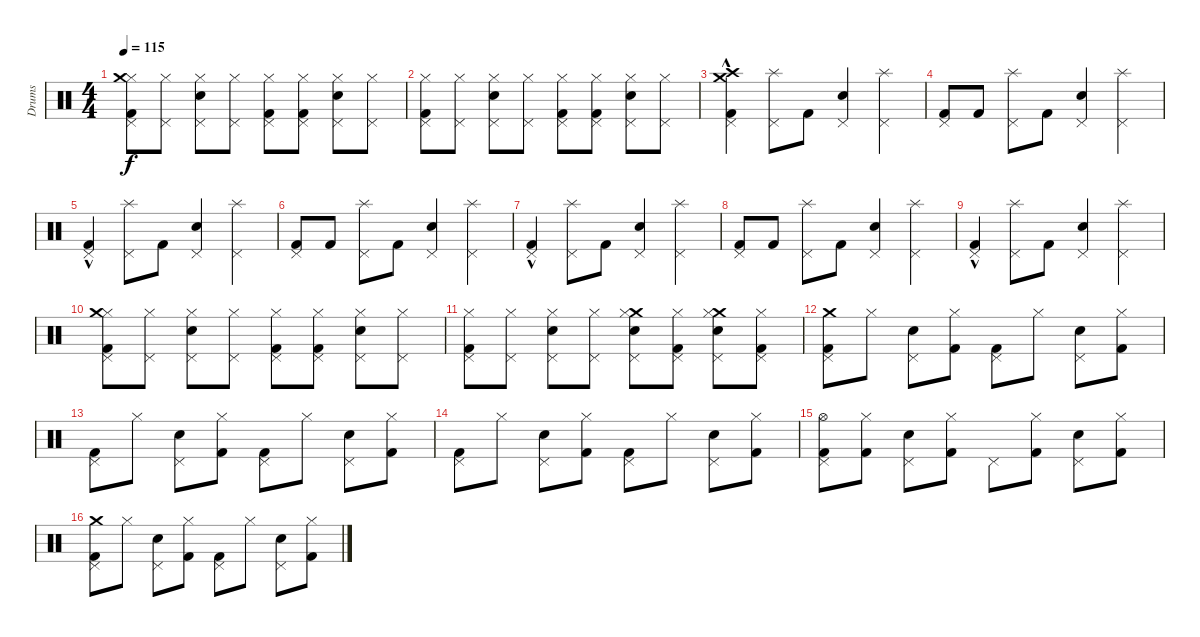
\track ("Drums" "Drums") {instrument percussion}
\staff {score}
\articulation defaults
\ts (4 4)
\tempo 115
\clef neutral
\ks c
("Hi-Hat (closed)" "Pedal Hi-Hat (hit)" "Crash medium (hit)" "Kick (hit) 2").8{dy f} ("Hi-Hat (closed)" "Pedal Hi-Hat (hit)").8 ("Hi-Hat (closed)" "Pedal Hi-Hat (hit)" "Snare (hit) 2").8 ("Hi-Hat (closed)" "Pedal Hi-Hat (hit)").8 ("Hi-Hat (closed)" "Pedal Hi-Hat (hit)" "Kick (hit) 2").8 ("Kick (hit) 2" "Hi-Hat (closed)" "Pedal Hi-Hat (hit)").8 ("Hi-Hat (closed)" "Pedal Hi-Hat (hit)" "Snare (hit) 2").8 ("Hi-Hat (closed)" "Pedal Hi-Hat (hit)").8 |
("Hi-Hat (closed)" "Pedal Hi-Hat (hit)" "Kick (hit) 2").8 ("Hi-Hat (closed)" "Pedal Hi-Hat (hit)").8 ("Hi-Hat (closed)" "Pedal Hi-Hat (hit)" "Snare (hit) 2").8 ("Hi-Hat (closed)" "Pedal Hi-Hat (hit)").8 ("Hi-Hat (closed)" "Pedal Hi-Hat (hit)" "Kick (hit) 2").8 ("Kick (hit) 2" "Pedal Hi-Hat (hit)" "Hi-Hat (closed)").8 ("Hi-Hat (closed)" "Pedal Hi-Hat (hit)" "Snare (hit) 2").8 ("Hi-Hat (closed)" "Pedal Hi-Hat (hit)").8 |
("Pedal Hi-Hat (hit)" "Kick (hit) 2"{hac} "Crash high (hit)" "Crash medium (hit)").4 ("Splash (hit)" "Pedal Hi-Hat (hit)").8 "Kick (hit) 2".8 ("Pedal Hi-Hat (hit)" "Snare (hit) 2").4 ("Pedal Hi-Hat (hit)" "Splash (hit)").4 |
("Pedal Hi-Hat (hit)" "Kick (hit) 2").8 "Kick (hit) 2".8 ("Splash (hit)" "Pedal Hi-Hat (hit)").8 "Kick (hit) 2".8 ("Pedal Hi-Hat (hit)" "Snare (hit) 2").4 ("Splash (hit)" "Pedal Hi-Hat (hit)").4 |
("Pedal Hi-Hat (hit)" "Kick (hit) 2"{hac}).4 ("Splash (hit)" "Pedal Hi-Hat (hit)").8 "Kick (hit) 2".8 ("Pedal Hi-Hat (hit)" "Snare (hit) 2").4 ("Splash (hit)" "Pedal Hi-Hat (hit)").4 |
("Pedal Hi-Hat (hit)" "Kick (hit) 2").8 "Kick (hit) 2".8 ("Splash (hit)" "Pedal Hi-Hat (hit)").8 "Kick (hit) 2".8 ("Pedal Hi-Hat (hit)" "Snare (hit) 2").4 ("Splash (hit)" "Pedal Hi-Hat (hit)").4 |
("Pedal Hi-Hat (hit)" "Kick (hit) 2"{hac}).4 ("Splash (hit)" "Pedal Hi-Hat (hit)").8 "Kick (hit) 2".8 ("Pedal Hi-Hat (hit)" "Snare (hit) 2").4 ("Splash (hit)" "Pedal Hi-Hat (hit)").4 |
("Pedal Hi-Hat (hit)" "Kick (hit) 2").8 "Kick (hit) 2".8 ("Splash (hit)" "Pedal Hi-Hat (hit)").8 "Kick (hit) 2".8 ("Pedal Hi-Hat (hit)" "Snare (hit) 2").4 ("Splash (hit)" "Pedal Hi-Hat (hit)").4 |
("Pedal Hi-Hat (hit)" "Kick (hit) 2"{hac}).4 ("Splash (hit)" "Pedal Hi-Hat (hit)").8 "Kick (hit) 2".8 ("Pedal Hi-Hat (hit)" "Snare (hit) 2").4 ("Splash (hit)" "Pedal Hi-Hat (hit)").4 |
("Hi-Hat (closed)" "Pedal Hi-Hat (hit)" "Crash medium (hit)" "Kick (hit) 2").8 ("Hi-Hat (closed)" "Pedal Hi-Hat (hit)").8 ("Hi-Hat (closed)" "Pedal Hi-Hat (hit)" "Snare (hit) 2").8 ("Hi-Hat (closed)" "Pedal Hi-Hat (hit)").8 ("Hi-Hat (closed)" "Pedal Hi-Hat (hit)" "Kick (hit) 2").8 ("Hi-Hat (closed)" "Pedal Hi-Hat (hit)" "Kick (hit) 2").8 ("Hi-Hat (closed)" "Pedal Hi-Hat (hit)" "Snare (hit) 2").8 ("Hi-Hat (closed)" "Pedal Hi-Hat (hit)").8 |
("Hi-Hat (closed)" "Pedal Hi-Hat (hit)" "Kick (hit) 2").8 ("Hi-Hat (closed)" "Pedal Hi-Hat (hit)").8 ("Hi-Hat (closed)" "Pedal Hi-Hat (hit)" "Snare (hit) 2").8 ("Hi-Hat (closed)" "Pedal Hi-Hat (hit)").8 ("Crash medium (hit)" "Hi-Hat (closed)" "Pedal Hi-Hat (hit)" "Snare (hit) 2").8 ("Hi-Hat (closed)" "Pedal Hi-Hat (hit)" "Kick (hit) 2").8 ("Crash medium (hit)" "Hi-Hat (closed)" "Pedal Hi-Hat (hit)" "Snare (hit) 2").8 ("Kick (hit) 2" "Hi-Hat (closed)" "Pedal Hi-Hat (hit)").8 |
("Pedal Hi-Hat (hit)" "Crash medium (hit)" "Kick (hit) 2").8 "Hi-Hat (closed)".8 ("Pedal Hi-Hat (hit)" "Snare (hit) 2").8 ("Hi-Hat (closed)" "Kick (hit) 2").8 ("Pedal Hi-Hat (hit)" "Kick (hit) 2").8 "Hi-Hat (closed)".8 ("Pedal Hi-Hat (hit)" "Snare (hit) 2").8 ("Hi-Hat (closed)" "Kick (hit) 2").8 |
("Pedal Hi-Hat (hit)" "Kick (hit) 2").8 "Hi-Hat (closed)".8 ("Pedal Hi-Hat (hit)" "Snare (hit) 2").8 ("Hi-Hat (closed)" "Kick (hit) 2").8 ("Pedal Hi-Hat (hit)" "Kick (hit) 2").8 "Hi-Hat (closed)".8 ("Pedal Hi-Hat (hit)" "Snare (hit) 2").8 ("Hi-Hat (closed)" "Kick (hit) 2").8 |
("Pedal Hi-Hat (hit)" "Kick (hit) 2").8 "Hi-Hat (closed)".8 ("Pedal Hi-Hat (hit)" "Snare (hit) 2").8 ("Hi-Hat (closed)" "Kick (hit) 2").8 ("Pedal Hi-Hat (hit)" "Kick (hit) 2").8 "Hi-Hat (closed)".8 ("Pedal Hi-Hat (hit)" "Snare (hit) 2").8 ("Hi-Hat (closed)" "Kick (hit) 2").8 |
("Hi-Hat (open)" "Pedal Hi-Hat (hit)" "Kick (hit) 2").8 ("Hi-Hat (closed)" "Kick (hit) 2").8 ("Pedal Hi-Hat (hit)" "Snare (hit) 2").8 ("Hi-Hat (closed)" "Kick (hit) 2").8 "Pedal Hi-Hat (hit)".8 ("Hi-Hat (closed)" "Kick (hit) 2").8 ("Pedal Hi-Hat (hit)" "Snare (hit) 2").8 ("Hi-Hat (closed)" "Kick (hit) 2").8 |
("Crash medium (hit)" "Pedal Hi-Hat (hit)" "Kick (hit) 2").8 "Hi-Hat (closed)".8 ("Pedal Hi-Hat (hit)" "Snare (hit) 2").8 ("Hi-Hat (closed)" "Kick (hit) 2").8 ("Pedal Hi-Hat (hit)" "Kick (hit) 2").8 "Hi-Hat (closed)".8 ("Pedal Hi-Hat (hit)" "Snare (hit) 2").8 ("Hi-Hat (closed)" "Kick (hit) 2").8
